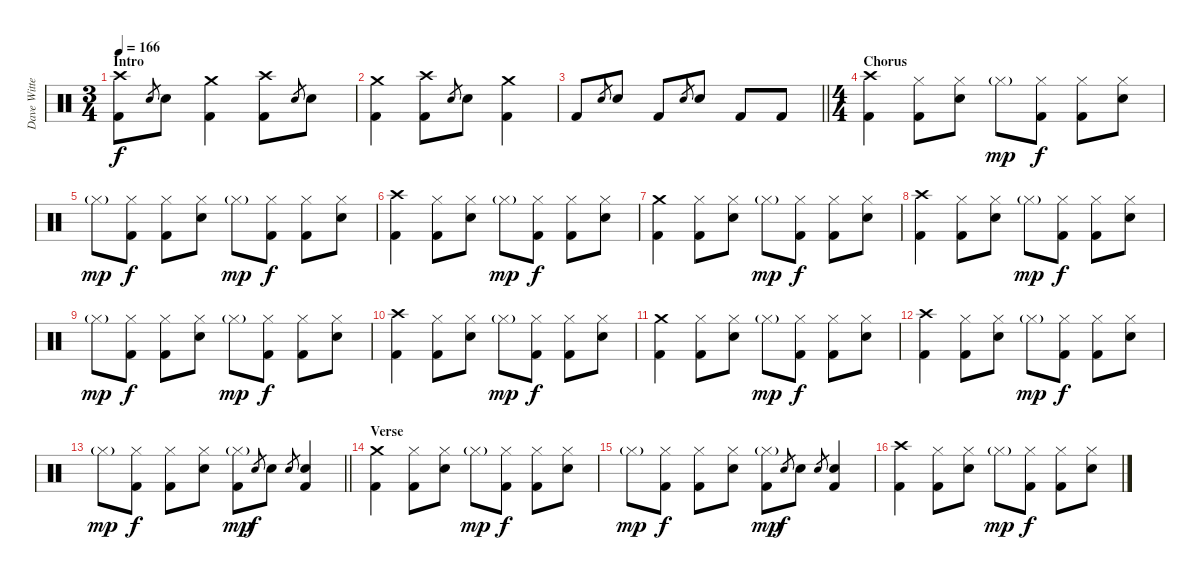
\track ("Dave Witte" "Dave Witte") {instrument percussion}
\staff {score}
\articulation defaults
\ts (3 4)
\section ("" "Intro")
\tempo 166
\clef neutral
\ks c
("Crash high (hit)" "Kick (hit) 2").8{dy f} "Electric Snare (hit)".8{gr} "Electric Snare (hit)".8 ("Crash medium (hit)" "Kick (hit) 2").4 ("Crash high (hit)" "Kick (hit) 2").8 "Electric Snare (hit)".8{gr} "Electric Snare (hit)".8 |
("Crash medium (hit)" "Kick (hit) 2").4 ("Crash high (hit)" "Kick (hit) 2").8 "Electric Snare (hit)".8{gr} "Electric Snare (hit)".8 ("Crash medium (hit)" "Kick (hit) 2").4 |
\barLineRight lightlight "Kick (hit) 2".8 "Electric Snare (hit)".8{gr} "Electric Snare (hit)".8 "Kick (hit) 2".8 "Electric Snare (hit)".8{gr} "Electric Snare (hit)".8 "Kick (hit) 2".8 "Kick (hit) 2".8
|
\ts (4 4)
\section ("" "Chorus")
("Crash high (hit)" "Kick (hit) 2").4 ("Hi-Hat (closed)" "Kick (hit) 2").8 ("Hi-Hat (closed)" "Electric Snare (hit)").8 "Hi-Hat (closed)"{g}.8{dy mp} ("Hi-Hat (closed)" "Kick (hit) 2").8{dy f} ("Hi-Hat (closed)" "Kick (hit) 2").8 ("Hi-Hat (closed)" "Electric Snare (hit)").8 |
"Hi-Hat (closed)"{g}.8{dy mp} ("Hi-Hat (closed)" "Kick (hit) 2").8{dy f} ("Hi-Hat (closed)" "Kick (hit) 2").8 ("Hi-Hat (closed)" "Electric Snare (hit)").8 "Hi-Hat (closed)"{g}.8{dy mp} ("Hi-Hat (closed)" "Kick (hit) 2").8{dy f} ("Hi-Hat (closed)" "Kick (hit) 2").8 ("Hi-Hat (closed)" "Electric Snare (hit)").8 |
("Crash high (hit)" "Kick (hit) 2").4 ("Hi-Hat (closed)" "Kick (hit) 2").8 ("Hi-Hat (closed)" "Electric Snare (hit)").8 "Hi-Hat (closed)"{g}.8{dy mp} ("Hi-Hat (closed)" "Kick (hit) 2").8{dy f} ("Hi-Hat (closed)" "Kick (hit) 2").8 ("Hi-Hat (closed)" "Electric Snare (hit)").8 |
("Crash medium (hit)" "Kick (hit) 2").4 ("Hi-Hat (closed)" "Kick (hit) 2").8 ("Hi-Hat (closed)" "Electric Snare (hit)").8 "Hi-Hat (closed)"{g}.8{dy mp} ("Hi-Hat (closed)" "Kick (hit) 2").8{dy f} ("Hi-Hat (closed)" "Kick (hit) 2").8 ("Hi-Hat (closed)" "Electric Snare (hit)").8 |
("Crash high (hit)" "Kick (hit) 2").4 ("Hi-Hat (closed)" "Kick (hit) 2").8 ("Hi-Hat (closed)" "Electric Snare (hit)").8 "Hi-Hat (closed)"{g}.8{dy mp} ("Hi-Hat (closed)" "Kick (hit) 2").8{dy f} ("Hi-Hat (closed)" "Kick (hit) 2").8 ("Hi-Hat (closed)" "Electric Snare (hit)").8 |
"Hi-Hat (closed)"{g}.8{dy mp} ("Hi-Hat (closed)" "Kick (hit) 2").8{dy f} ("Hi-Hat (closed)" "Kick (hit) 2").8 ("Hi-Hat (closed)" "Electric Snare (hit)").8 "Hi-Hat (closed)"{g}.8{dy mp} ("Hi-Hat (closed)" "Kick (hit) 2").8{dy f} ("Hi-Hat (closed)" "Kick (hit) 2").8 ("Hi-Hat (closed)" "Electric Snare (hit)").8 |
("Crash high (hit)" "Kick (hit) 2").4 ("Hi-Hat (closed)" "Kick (hit) 2").8 ("Hi-Hat (closed)" "Electric Snare (hit)").8 "Hi-Hat (closed)"{g}.8{dy mp} ("Hi-Hat (closed)" "Kick (hit) 2").8{dy f} ("Hi-Hat (closed)" "Kick (hit) 2").8 ("Hi-Hat (closed)" "Electric Snare (hit)").8 |
("Crash medium (hit)" "Kick (hit) 2").4 ("Hi-Hat (closed)" "Kick (hit) 2").8 ("Hi-Hat (closed)" "Electric Snare (hit)").8 "Hi-Hat (closed)"{g}.8{dy mp} ("Hi-Hat (closed)" "Kick (hit) 2").8{dy f} ("Hi-Hat (closed)" "Kick (hit) 2").8 ("Hi-Hat (closed)" "Electric Snare (hit)").8 |
("Crash high (hit)" "Kick (hit) 2").4 ("Hi-Hat (closed)" "Kick (hit) 2").8 ("Hi-Hat (closed)" "Electric Snare (hit)").8 "Hi-Hat (closed)"{g}.8{dy mp} ("Hi-Hat (closed)" "Kick (hit) 2").8{dy f} ("Hi-Hat (closed)" "Kick (hit) 2").8 ("Hi-Hat (closed)" "Electric Snare (hit)").8 |
\barLineRight lightlight "Hi-Hat (closed)"{g}.8{dy mp}
("Hi-Hat (closed)" "Kick (hit) 2").8{dy f} ("Hi-Hat (closed)" "Kick (hit) 2").8 ("Hi-Hat (closed)" "Electric Snare (hit)").8 ("Hi-Hat (closed)"{g} "Kick (hit) 2").8{dy mp} "Electric Snare (hit)".8{gr dy f} "Electric Snare (hit)".8 "Electric Snare (hit)".8{gr} ("Electric Snare (hit)" "Kick (hit) 2").4 |
\section ("" "Verse")
("Crash medium (hit)" "Kick (hit) 2").4 ("Hi-Hat (closed)" "Kick (hit) 2").8 ("Hi-Hat (closed)" "Electric Snare (hit)").8 "Hi-Hat (closed)"{g}.8{dy mp} ("Hi-Hat (closed)" "Kick (hit) 2").8{dy f} ("Hi-Hat (closed)" "Kick (hit) 2").8 ("Hi-Hat (closed)" "Electric Snare (hit)").8 |
"Hi-Hat (closed)"{g}.8{dy mp} ("Hi-Hat (closed)" "Kick (hit) 2").8{dy f} ("Hi-Hat (closed)" "Kick (hit) 2").8 ("Hi-Hat (closed)" "Electric Snare (hit)").8 ("Hi-Hat (closed)"{g} "Kick (hit) 2").8{dy mp} "Electric Snare (hit)".8{gr dy f} "Electric Snare (hit)".8 "Electric Snare (hit)".8{gr} ("Electric Snare (hit)" "Kick (hit) 2").4 |
("Crash high (hit)" "Kick (hit) 2").4 ("Hi-Hat (closed)" "Kick (hit) 2").8 ("Hi-Hat (closed)" "Electric Snare (hit)").8 "Hi-Hat (closed)"{g}.8{dy mp} ("Hi-Hat (closed)" "Kick (hit) 2").8{dy f} ("Hi-Hat (closed)" "Kick (hit) 2").8 ("Hi-Hat (closed)" "Electric Snare (hit)").8
